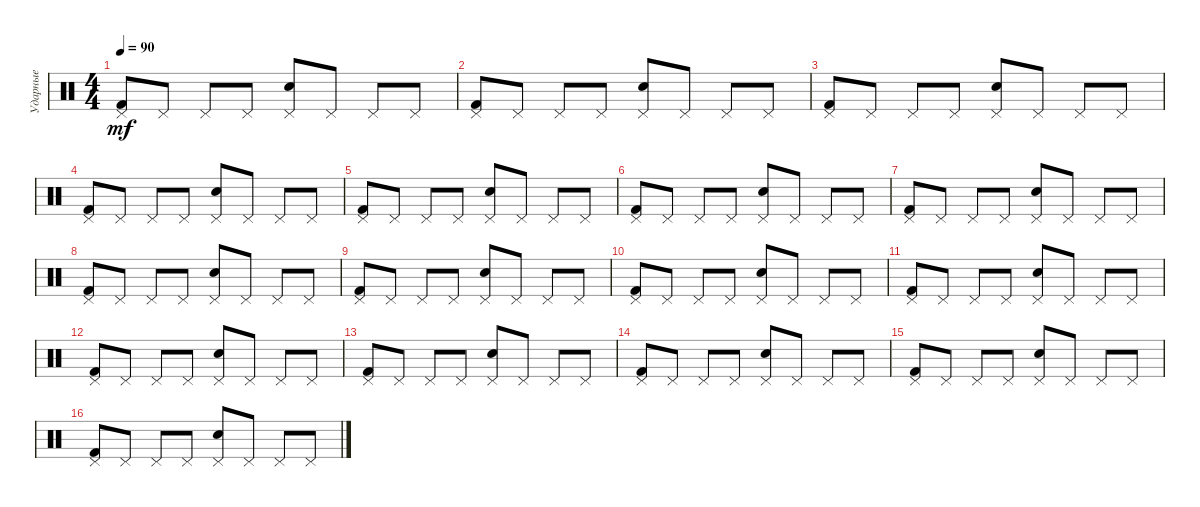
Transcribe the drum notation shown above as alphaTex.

\track ("Ударные" "Ударные") {instrument percussion}
\staff {score}
\articulation defaults
\ts (4 4)
\tempo 90
\clef neutral
\ks c
("Pedal Hi-Hat (hit)" "Kick (hit) 2").8{dy mf} "Pedal Hi-Hat (hit)".8 "Pedal Hi-Hat (hit)".8 "Pedal Hi-Hat (hit)".8 ("Pedal Hi-Hat (hit)" "Snare (hit) 2").8 "Pedal Hi-Hat (hit)".8 "Pedal Hi-Hat (hit)".8 "Pedal Hi-Hat (hit)".8 |
("Pedal Hi-Hat (hit)" "Kick (hit) 2").8 "Pedal Hi-Hat (hit)".8 "Pedal Hi-Hat (hit)".8 "Pedal Hi-Hat (hit)".8 ("Pedal Hi-Hat (hit)" "Snare (hit) 2").8 "Pedal Hi-Hat (hit)".8 "Pedal Hi-Hat (hit)".8 "Pedal Hi-Hat (hit)".8 |
("Pedal Hi-Hat (hit)" "Kick (hit) 2").8 "Pedal Hi-Hat (hit)".8 "Pedal Hi-Hat (hit)".8 "Pedal Hi-Hat (hit)".8 ("Pedal Hi-Hat (hit)" "Snare (hit) 2").8 "Pedal Hi-Hat (hit)".8 "Pedal Hi-Hat (hit)".8 "Pedal Hi-Hat (hit)".8 |
("Pedal Hi-Hat (hit)" "Kick (hit) 2").8 "Pedal Hi-Hat (hit)".8 "Pedal Hi-Hat (hit)".8 "Pedal Hi-Hat (hit)".8 ("Pedal Hi-Hat (hit)" "Snare (hit) 2").8 "Pedal Hi-Hat (hit)".8 "Pedal Hi-Hat (hit)".8 "Pedal Hi-Hat (hit)".8 |
("Pedal Hi-Hat (hit)" "Kick (hit) 2").8 "Pedal Hi-Hat (hit)".8 "Pedal Hi-Hat (hit)".8 "Pedal Hi-Hat (hit)".8 ("Pedal Hi-Hat (hit)" "Snare (hit) 2").8 "Pedal Hi-Hat (hit)".8 "Pedal Hi-Hat (hit)".8 "Pedal Hi-Hat (hit)".8 |
("Pedal Hi-Hat (hit)" "Kick (hit) 2").8 "Pedal Hi-Hat (hit)".8 "Pedal Hi-Hat (hit)".8 "Pedal Hi-Hat (hit)".8 ("Pedal Hi-Hat (hit)" "Snare (hit) 2").8 "Pedal Hi-Hat (hit)".8 "Pedal Hi-Hat (hit)".8 "Pedal Hi-Hat (hit)".8 |
("Pedal Hi-Hat (hit)" "Kick (hit) 2").8 "Pedal Hi-Hat (hit)".8 "Pedal Hi-Hat (hit)".8 "Pedal Hi-Hat (hit)".8 ("Pedal Hi-Hat (hit)" "Snare (hit) 2").8 "Pedal Hi-Hat (hit)".8 "Pedal Hi-Hat (hit)".8 "Pedal Hi-Hat (hit)".8 |
("Pedal Hi-Hat (hit)" "Kick (hit) 2").8 "Pedal Hi-Hat (hit)".8 "Pedal Hi-Hat (hit)".8 "Pedal Hi-Hat (hit)".8 ("Pedal Hi-Hat (hit)" "Snare (hit) 2").8 "Pedal Hi-Hat (hit)".8 "Pedal Hi-Hat (hit)".8 "Pedal Hi-Hat (hit)".8 |
("Pedal Hi-Hat (hit)" "Kick (hit) 2").8 "Pedal Hi-Hat (hit)".8 "Pedal Hi-Hat (hit)".8 "Pedal Hi-Hat (hit)".8 ("Pedal Hi-Hat (hit)" "Snare (hit) 2").8 "Pedal Hi-Hat (hit)".8 "Pedal Hi-Hat (hit)".8 "Pedal Hi-Hat (hit)".8 |
("Pedal Hi-Hat (hit)" "Kick (hit) 2").8 "Pedal Hi-Hat (hit)".8 "Pedal Hi-Hat (hit)".8 "Pedal Hi-Hat (hit)".8 ("Pedal Hi-Hat (hit)" "Snare (hit) 2").8 "Pedal Hi-Hat (hit)".8 "Pedal Hi-Hat (hit)".8 "Pedal Hi-Hat (hit)".8 |
("Pedal Hi-Hat (hit)" "Kick (hit) 2").8 "Pedal Hi-Hat (hit)".8 "Pedal Hi-Hat (hit)".8 "Pedal Hi-Hat (hit)".8 ("Pedal Hi-Hat (hit)" "Snare (hit) 2").8 "Pedal Hi-Hat (hit)".8 "Pedal Hi-Hat (hit)".8 "Pedal Hi-Hat (hit)".8 |
("Pedal Hi-Hat (hit)" "Kick (hit) 2").8 "Pedal Hi-Hat (hit)".8 "Pedal Hi-Hat (hit)".8 "Pedal Hi-Hat (hit)".8 ("Pedal Hi-Hat (hit)" "Snare (hit) 2").8 "Pedal Hi-Hat (hit)".8 "Pedal Hi-Hat (hit)".8 "Pedal Hi-Hat (hit)".8 |
("Pedal Hi-Hat (hit)" "Kick (hit) 2").8 "Pedal Hi-Hat (hit)".8 "Pedal Hi-Hat (hit)".8 "Pedal Hi-Hat (hit)".8 ("Pedal Hi-Hat (hit)" "Snare (hit) 2").8 "Pedal Hi-Hat (hit)".8 "Pedal Hi-Hat (hit)".8 "Pedal Hi-Hat (hit)".8 |
("Pedal Hi-Hat (hit)" "Kick (hit) 2").8 "Pedal Hi-Hat (hit)".8 "Pedal Hi-Hat (hit)".8 "Pedal Hi-Hat (hit)".8 ("Pedal Hi-Hat (hit)" "Snare (hit) 2").8 "Pedal Hi-Hat (hit)".8 "Pedal Hi-Hat (hit)".8 "Pedal Hi-Hat (hit)".8 |
("Pedal Hi-Hat (hit)" "Kick (hit) 2").8 "Pedal Hi-Hat (hit)".8 "Pedal Hi-Hat (hit)".8 "Pedal Hi-Hat (hit)".8 ("Pedal Hi-Hat (hit)" "Snare (hit) 2").8 "Pedal Hi-Hat (hit)".8 "Pedal Hi-Hat (hit)".8 "Pedal Hi-Hat (hit)".8 |
("Pedal Hi-Hat (hit)" "Kick (hit) 2").8 "Pedal Hi-Hat (hit)".8 "Pedal Hi-Hat (hit)".8 "Pedal Hi-Hat (hit)".8 ("Pedal Hi-Hat (hit)" "Snare (hit) 2").8 "Pedal Hi-Hat (hit)".8 "Pedal Hi-Hat (hit)".8 "Pedal Hi-Hat (hit)".8
